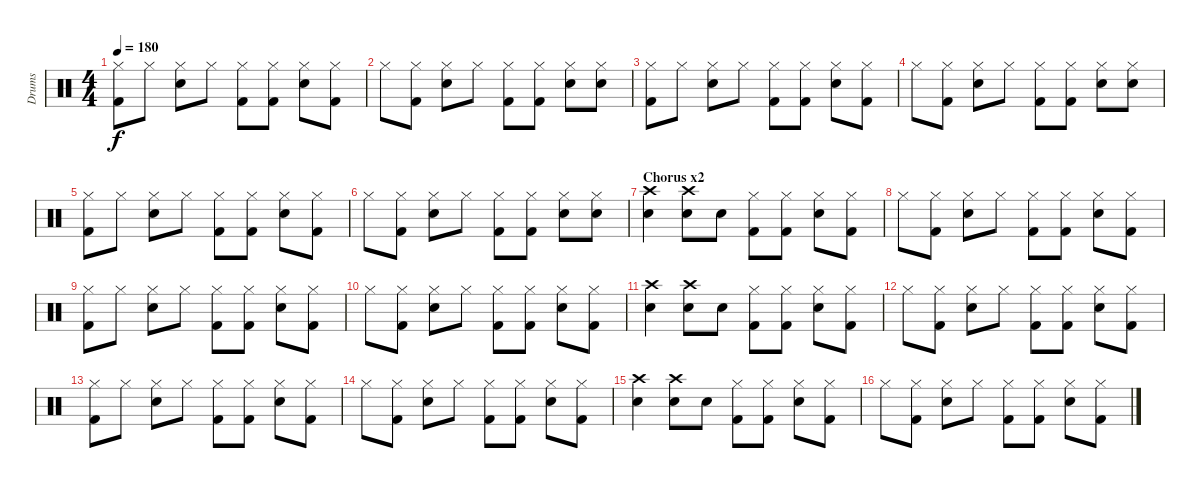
\track ("Drums" "Drums") {instrument percussion}
\staff {score}
\articulation defaults
\ts (4 4)
\tempo 180
\clef neutral
\ks c
("Hi-Hat (closed)" "Kick (hit) 2").8{dy f} "Hi-Hat (closed)".8 ("Hi-Hat (closed)" "Snare (hit) 2").8 "Hi-Hat (closed)".8 ("Hi-Hat (closed)" "Kick (hit) 2").8 ("Hi-Hat (closed)" "Kick (hit) 2").8 ("Hi-Hat (closed)" "Snare (hit) 2").8 ("Hi-Hat (closed)" "Kick (hit) 2").8 |
"Hi-Hat (closed)".8 ("Hi-Hat (closed)" "Kick (hit) 2").8 ("Hi-Hat (closed)" "Snare (hit) 2").8 "Hi-Hat (closed)".8 ("Hi-Hat (closed)" "Kick (hit) 2").8 ("Hi-Hat (closed)" "Kick (hit) 2").8 ("Hi-Hat (closed)" "Snare (hit) 2").8 ("Hi-Hat (closed)" "Snare (hit) 2").8 |
("Hi-Hat (closed)" "Kick (hit) 2").8 "Hi-Hat (closed)".8 ("Hi-Hat (closed)" "Snare (hit) 2").8 "Hi-Hat (closed)".8 ("Hi-Hat (closed)" "Kick (hit) 2").8 ("Hi-Hat (closed)" "Kick (hit) 2").8 ("Hi-Hat (closed)" "Snare (hit) 2").8 ("Hi-Hat (closed)" "Kick (hit) 2").8 |
"Hi-Hat (closed)".8 ("Hi-Hat (closed)" "Kick (hit) 2").8 ("Hi-Hat (closed)" "Snare (hit) 2").8 "Hi-Hat (closed)".8 ("Hi-Hat (closed)" "Kick (hit) 2").8 ("Hi-Hat (closed)" "Kick (hit) 2").8 ("Hi-Hat (closed)" "Snare (hit) 2").8 ("Hi-Hat (closed)" "Snare (hit) 2").8 |
("Hi-Hat (closed)" "Kick (hit) 2").8 "Hi-Hat (closed)".8 ("Hi-Hat (closed)" "Snare (hit) 2").8 "Hi-Hat (closed)".8 ("Hi-Hat (closed)" "Kick (hit) 2").8 ("Hi-Hat (closed)" "Kick (hit) 2").8 ("Hi-Hat (closed)" "Snare (hit) 2").8 ("Hi-Hat (closed)" "Kick (hit) 2").8 |
"Hi-Hat (closed)".8 ("Hi-Hat (closed)" "Kick (hit) 2").8 ("Hi-Hat (closed)" "Snare (hit) 2").8 "Hi-Hat (closed)".8 ("Hi-Hat (closed)" "Kick (hit) 2").8 ("Hi-Hat (closed)" "Kick (hit) 2").8 ("Hi-Hat (closed)" "Snare (hit) 2").8 ("Hi-Hat (closed)" "Snare (hit) 2").8 |
\section ("" "Chorus x2")
("Electric Snare (hit)" "Crash high (hit)").4 ("Electric Snare (hit)" "Crash high (hit)").8 "Snare (hit) 2".8 ("Hi-Hat (closed)" "Kick (hit) 2").8 ("Hi-Hat (closed)" "Kick (hit) 2").8 ("Hi-Hat (closed)" "Snare (hit) 2").8 ("Hi-Hat (closed)" "Kick (hit) 2").8 |
"Hi-Hat (closed)".8 ("Hi-Hat (closed)" "Kick (hit) 2").8 ("Hi-Hat (closed)" "Snare (hit) 2").8 "Hi-Hat (closed)".8 ("Hi-Hat (closed)" "Kick (hit) 2").8 ("Hi-Hat (closed)" "Kick (hit) 2").8 ("Hi-Hat (closed)" "Snare (hit) 2").8 ("Hi-Hat (closed)" "Kick (hit) 2").8 |
("Hi-Hat (closed)" "Kick (hit) 2").8 "Hi-Hat (closed)".8 ("Hi-Hat (closed)" "Snare (hit) 2").8 "Hi-Hat (closed)".8 ("Hi-Hat (closed)" "Kick (hit) 2").8 ("Hi-Hat (closed)" "Kick (hit) 2").8 ("Hi-Hat (closed)" "Snare (hit) 2").8 ("Hi-Hat (closed)" "Kick (hit) 2").8 |
"Hi-Hat (closed)".8 ("Hi-Hat (closed)" "Kick (hit) 2").8 ("Hi-Hat (closed)" "Snare (hit) 2").8 "Hi-Hat (closed)".8 ("Hi-Hat (closed)" "Kick (hit) 2").8 ("Hi-Hat (closed)" "Kick (hit) 2").8 ("Hi-Hat (closed)" "Snare (hit) 2").8 ("Hi-Hat (closed)" "Kick (hit) 2").8 |
("Electric Snare (hit)" "Crash high (hit)").4 ("Electric Snare (hit)" "Crash high (hit)").8 "Snare (hit) 2".8 ("Hi-Hat (closed)" "Kick (hit) 2").8 ("Hi-Hat (closed)" "Kick (hit) 2").8 ("Hi-Hat (closed)" "Snare (hit) 2").8 ("Hi-Hat (closed)" "Kick (hit) 2").8 |
"Hi-Hat (closed)".8 ("Hi-Hat (closed)" "Kick (hit) 2").8 ("Hi-Hat (closed)" "Snare (hit) 2").8 "Hi-Hat (closed)".8 ("Hi-Hat (closed)" "Kick (hit) 2").8 ("Hi-Hat (closed)" "Kick (hit) 2").8 ("Hi-Hat (closed)" "Snare (hit) 2").8 ("Hi-Hat (closed)" "Kick (hit) 2").8 |
("Hi-Hat (closed)" "Kick (hit) 2").8 "Hi-Hat (closed)".8 ("Hi-Hat (closed)" "Snare (hit) 2").8 "Hi-Hat (closed)".8 ("Hi-Hat (closed)" "Kick (hit) 2").8 ("Hi-Hat (closed)" "Kick (hit) 2").8 ("Hi-Hat (closed)" "Snare (hit) 2").8 ("Hi-Hat (closed)" "Kick (hit) 2").8 |
"Hi-Hat (closed)".8 ("Hi-Hat (closed)" "Kick (hit) 2").8 ("Hi-Hat (closed)" "Snare (hit) 2").8 "Hi-Hat (closed)".8 ("Hi-Hat (closed)" "Kick (hit) 2").8 ("Hi-Hat (closed)" "Kick (hit) 2").8 ("Hi-Hat (closed)" "Snare (hit) 2").8 ("Hi-Hat (closed)" "Kick (hit) 2").8 |
("Electric Snare (hit)" "Crash high (hit)").4 ("Electric Snare (hit)" "Crash high (hit)").8 "Snare (hit) 2".8 ("Hi-Hat (closed)" "Kick (hit) 2").8 ("Hi-Hat (closed)" "Kick (hit) 2").8 ("Hi-Hat (closed)" "Snare (hit) 2").8 ("Hi-Hat (closed)" "Kick (hit) 2").8 |
"Hi-Hat (closed)".8 ("Hi-Hat (closed)" "Kick (hit) 2").8 ("Hi-Hat (closed)" "Snare (hit) 2").8 "Hi-Hat (closed)".8 ("Hi-Hat (closed)" "Kick (hit) 2").8 ("Hi-Hat (closed)" "Kick (hit) 2").8 ("Hi-Hat (closed)" "Snare (hit) 2").8 ("Hi-Hat (closed)" "Kick (hit) 2").8
